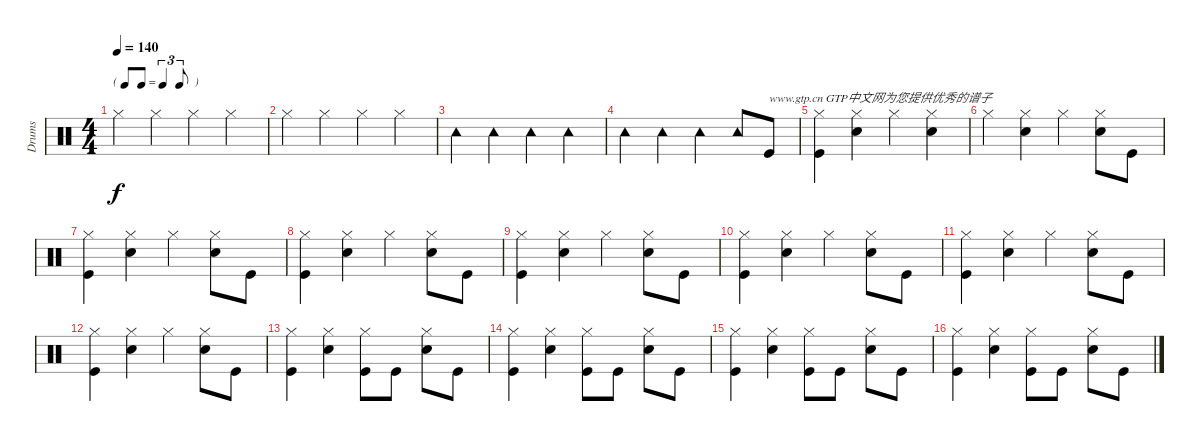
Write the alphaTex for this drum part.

\track ("Drums" "Drums") {instrument percussion}
\staff {score}
\articulation defaults
\ts (4 4)
\tf triplet8th
\tempo 140
\clef neutral
\ks c "Hi-Hat (closed)".4{dy f} "Hi-Hat (closed)".4 "Hi-Hat (closed)".4 "Hi-Hat (closed)".4
|
"Hi-Hat (closed)".4 "Hi-Hat (closed)".4 "Hi-Hat (closed)".4 "Hi-Hat (closed)".4 |
"Tambourine (hit)".4 "Tambourine (hit)".4 "Tambourine (hit)".4 "Tambourine (hit)".4 |
"Tambourine (hit)".4 "Tambourine (hit)".4 "Tambourine (hit)".4 "Tambourine (hit)".8 "Kick (hit)".8{txt "www.gtp.cn GTP中文网为您提供优秀的谱子"} |
("Hi-Hat (closed)" "Kick (hit)").4 ("Hi-Hat (closed)" "Snare (hit) 2").4 "Hi-Hat (closed)".4 ("Hi-Hat (closed)" "Snare (hit) 2").4 |
"Hi-Hat (closed)".4 ("Hi-Hat (closed)" "Snare (hit) 2").4 "Hi-Hat (closed)".4 ("Snare (hit) 2" "Hi-Hat (closed)").8 "Kick (hit)".8 |
("Hi-Hat (closed)" "Kick (hit)").4 ("Hi-Hat (closed)" "Snare (hit) 2").4 "Hi-Hat (closed)".4 ("Hi-Hat (closed)" "Snare (hit) 2").8 "Kick (hit)".8 |
("Kick (hit)" "Hi-Hat (closed)").4 ("Hi-Hat (closed)" "Snare (hit) 2").4 "Hi-Hat (closed)".4 ("Hi-Hat (closed)" "Snare (hit) 2").8 "Kick (hit)".8 |
("Kick (hit)" "Hi-Hat (closed)").4 ("Hi-Hat (closed)" "Snare (hit) 2").4 "Hi-Hat (closed)".4 ("Hi-Hat (closed)" "Snare (hit) 2").8 "Kick (hit)".8 |
("Kick (hit)" "Hi-Hat (closed)").4 ("Hi-Hat (closed)" "Snare (hit) 2").4 "Hi-Hat (closed)".4 ("Hi-Hat (closed)" "Snare (hit) 2").8 "Kick (hit)".8 |
("Kick (hit)" "Hi-Hat (closed)").4 ("Hi-Hat (closed)" "Snare (hit) 2").4 "Hi-Hat (closed)".4 ("Hi-Hat (closed)" "Snare (hit) 2").8 "Kick (hit)".8 |
("Kick (hit)" "Hi-Hat (closed)").4 ("Hi-Hat (closed)" "Snare (hit) 2").4 "Hi-Hat (closed)".4 ("Hi-Hat (closed)" "Snare (hit) 2").8 "Kick (hit)".8 |
("Hi-Hat (closed)" "Kick (hit)").4 ("Hi-Hat (closed)" "Snare (hit) 2").4 ("Kick (hit)" "Hi-Hat (closed)").8 "Kick (hit)".8 ("Hi-Hat (closed)" "Snare (hit) 2").8 "Kick (hit)".8 |
("Hi-Hat (closed)" "Kick (hit)").4 ("Hi-Hat (closed)" "Snare (hit) 2").4 ("Kick (hit)" "Hi-Hat (closed)").8 "Kick (hit)".8 ("Hi-Hat (closed)" "Snare (hit) 2").8 "Kick (hit)".8 |
("Hi-Hat (closed)" "Kick (hit)").4 ("Hi-Hat (closed)" "Snare (hit) 2").4 ("Kick (hit)" "Hi-Hat (closed)").8 "Kick (hit)".8 ("Hi-Hat (closed)" "Snare (hit) 2").8 "Kick (hit)".8 |
("Hi-Hat (closed)" "Kick (hit)").4 ("Hi-Hat (closed)" "Snare (hit) 2").4 ("Kick (hit)" "Hi-Hat (closed)").8 "Kick (hit)".8 ("Hi-Hat (closed)" "Snare (hit) 2").8 "Kick (hit)".8
